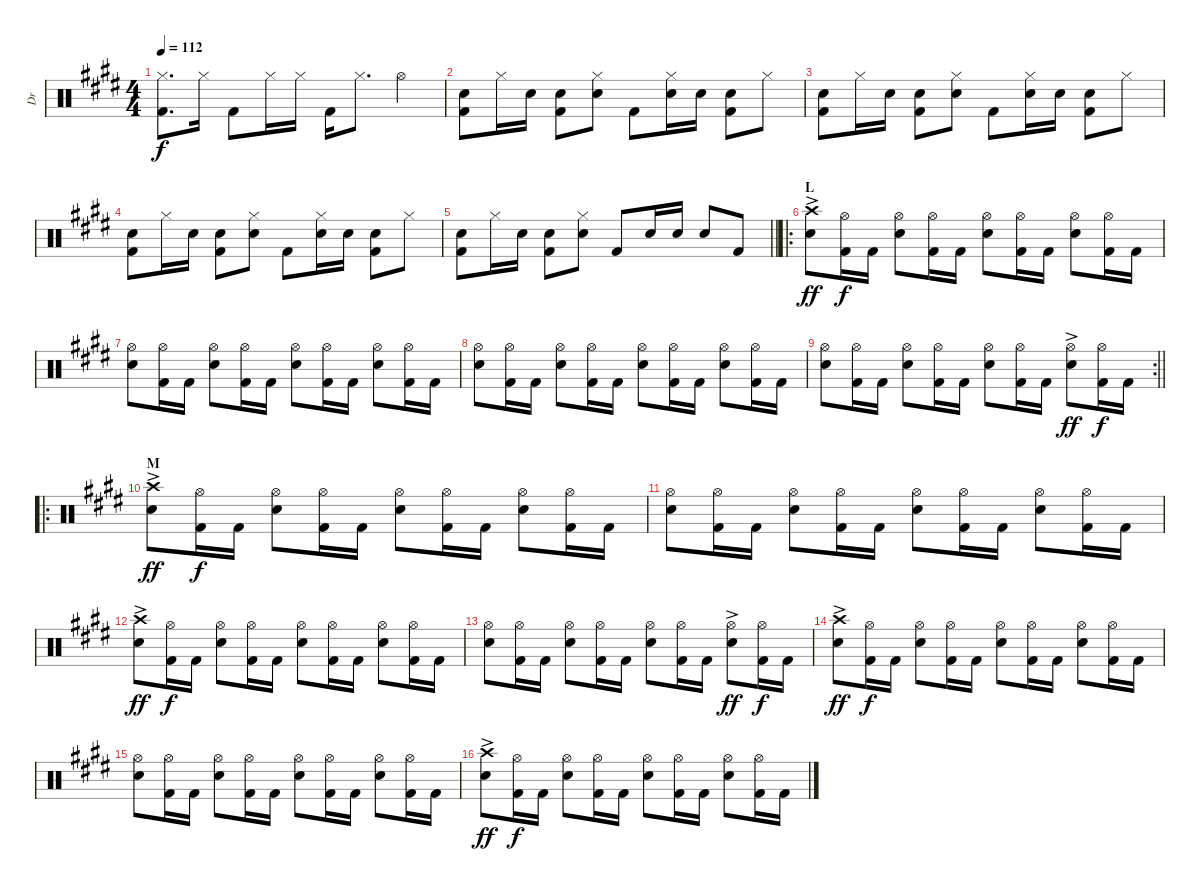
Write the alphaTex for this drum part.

\track ("Dr" "Dr") {instrument percussion}
\staff {score}
\articulation defaults
\ts (4 4)
\tempo 112
\clef neutral
\ks e
("Hi-Hat (closed)" "Kick (hit) 2").8{d dy f} "Hi-Hat (closed)".16 "Kick (hit) 2".8 "Hi-Hat (closed)".16 "Hi-Hat (closed)".16 "Kick (hit) 2".16 "Hi-Hat (closed)".8{d} "Hi-Hat (open)".4 |
("Electric Snare (hit)" "Kick (hit) 2").8 "Hi-Hat (closed)".16 "Electric Snare (hit)".16 ("Electric Snare (hit)" "Kick (hit) 2").8 ("Hi-Hat (closed)" "Electric Snare (hit)").8 "Kick (hit) 2".8 ("Hi-Hat (closed)" "Electric Snare (hit)").16 "Electric Snare (hit)".16 ("Electric Snare (hit)" "Kick (hit) 2").8 "Hi-Hat (closed)".8 |
("Electric Snare (hit)" "Kick (hit) 2").8 "Hi-Hat (closed)".16 "Electric Snare (hit)".16 ("Electric Snare (hit)" "Kick (hit) 2").8 ("Hi-Hat (closed)" "Electric Snare (hit)").8 "Kick (hit) 2".8 ("Hi-Hat (closed)" "Electric Snare (hit)").16 "Electric Snare (hit)".16 ("Electric Snare (hit)" "Kick (hit) 2").8 "Hi-Hat (closed)".8 |
("Electric Snare (hit)" "Kick (hit) 2").8 "Hi-Hat (closed)".16 "Electric Snare (hit)".16 ("Electric Snare (hit)" "Kick (hit) 2").8 ("Hi-Hat (closed)" "Electric Snare (hit)").8 "Kick (hit) 2".8 ("Hi-Hat (closed)" "Electric Snare (hit)").16 "Electric Snare (hit)".16 ("Electric Snare (hit)" "Kick (hit) 2").8 "Hi-Hat (closed)".8 |
\barLineRight lightlight
("Electric Snare (hit)" "Kick (hit) 2").8 "Hi-Hat (closed)".16 "Electric Snare (hit)".16 ("Electric Snare (hit)" "Kick (hit) 2").8 ("Hi-Hat (closed)" "Electric Snare (hit)").8 "Kick (hit) 2".8 "Electric Snare (hit)".16 "Electric Snare (hit)".16 "Electric Snare (hit)".8 "Kick (hit) 2".8 |
\ro
\section ("" "L")
("Crash high (hit)"{ac} "Electric Snare (hit)"{ac}).8{dy ff} ("Hi-Hat (open)" "Kick (hit) 2").16{dy f} "Kick (hit) 2".16 ("Hi-Hat (open)" "Electric Snare (hit)").8 ("Hi-Hat (open)" "Kick (hit) 2").16 "Kick (hit) 2".16 ("Hi-Hat (open)" "Electric Snare (hit)").8 ("Hi-Hat (open)" "Kick (hit) 2").16 "Kick (hit) 2".16 ("Hi-Hat (open)" "Electric Snare (hit)").8 ("Hi-Hat (open)" "Kick (hit) 2").16 "Kick (hit) 2".16 |
("Hi-Hat (open)" "Electric Snare (hit)").8 ("Hi-Hat (open)" "Kick (hit) 2").16 "Kick (hit) 2".16 ("Hi-Hat (open)" "Electric Snare (hit)").8 ("Hi-Hat (open)" "Kick (hit) 2").16 "Kick (hit) 2".16 ("Hi-Hat (open)" "Electric Snare (hit)").8 ("Hi-Hat (open)" "Kick (hit) 2").16 "Kick (hit) 2".16 ("Hi-Hat (open)" "Electric Snare (hit)").8 ("Hi-Hat (open)" "Kick (hit) 2").16 "Kick (hit) 2".16 |
("Hi-Hat (open)" "Electric Snare (hit)").8 ("Hi-Hat (open)" "Kick (hit) 2").16 "Kick (hit) 2".16 ("Hi-Hat (open)" "Electric Snare (hit)").8 ("Hi-Hat (open)" "Kick (hit) 2").16 "Kick (hit) 2".16 ("Hi-Hat (open)" "Electric Snare (hit)").8 ("Hi-Hat (open)" "Kick (hit) 2").16 "Kick (hit) 2".16 ("Hi-Hat (open)" "Electric Snare (hit)").8 ("Hi-Hat (open)" "Kick (hit) 2").16 "Kick (hit) 2".16 |
\rc 2
\barLineRight lightlight
("Hi-Hat (open)" "Electric Snare (hit)").8 ("Hi-Hat (open)" "Kick (hit) 2").16 "Kick (hit) 2".16 ("Hi-Hat (open)" "Electric Snare (hit)").8 ("Hi-Hat (open)" "Kick (hit) 2").16 "Kick (hit) 2".16 ("Hi-Hat (open)" "Electric Snare (hit)").8 ("Hi-Hat (open)" "Kick (hit) 2").16 "Kick (hit) 2".16 ("Hi-Hat (open)"{ac} "Electric Snare (hit)"{ac}).8{dy ff} ("Hi-Hat (open)" "Kick (hit) 2").16{dy f} "Kick (hit) 2".16 |
\ro
\section ("" "M")
("Crash high (hit)"{ac} "Electric Snare (hit)"{ac}).8{dy ff} ("Hi-Hat (open)" "Kick (hit) 2").16{dy f} "Kick (hit) 2".16 ("Hi-Hat (open)" "Electric Snare (hit)").8 ("Hi-Hat (open)" "Kick (hit) 2").16 "Kick (hit) 2".16 ("Hi-Hat (open)" "Electric Snare (hit)").8 ("Hi-Hat (open)" "Kick (hit) 2").16 "Kick (hit) 2".16 ("Hi-Hat (open)" "Electric Snare (hit)").8 ("Hi-Hat (open)" "Kick (hit) 2").16 "Kick (hit) 2".16 |
("Hi-Hat (open)" "Electric Snare (hit)").8 ("Hi-Hat (open)" "Kick (hit) 2").16 "Kick (hit) 2".16 ("Hi-Hat (open)" "Electric Snare (hit)").8 ("Hi-Hat (open)" "Kick (hit) 2").16 "Kick (hit) 2".16 ("Hi-Hat (open)" "Electric Snare (hit)").8 ("Hi-Hat (open)" "Kick (hit) 2").16 "Kick (hit) 2".16 ("Hi-Hat (open)" "Electric Snare (hit)").8 ("Hi-Hat (open)" "Kick (hit) 2").16 "Kick (hit) 2".16 |
("Crash high (hit)"{ac} "Electric Snare (hit)"{ac}).8{dy ff} ("Hi-Hat (open)" "Kick (hit) 2").16{dy f} "Kick (hit) 2".16 ("Hi-Hat (open)" "Electric Snare (hit)").8 ("Hi-Hat (open)" "Kick (hit) 2").16 "Kick (hit) 2".16 ("Hi-Hat (open)" "Electric Snare (hit)").8 ("Hi-Hat (open)" "Kick (hit) 2").16 "Kick (hit) 2".16 ("Hi-Hat (open)" "Electric Snare (hit)").8 ("Hi-Hat (open)" "Kick (hit) 2").16 "Kick (hit) 2".16 |
("Hi-Hat (open)" "Electric Snare (hit)").8 ("Hi-Hat (open)" "Kick (hit) 2").16 "Kick (hit) 2".16 ("Hi-Hat (open)" "Electric Snare (hit)").8 ("Hi-Hat (open)" "Kick (hit) 2").16 "Kick (hit) 2".16 ("Hi-Hat (open)" "Electric Snare (hit)").8 ("Hi-Hat (open)" "Kick (hit) 2").16 "Kick (hit) 2".16 ("Hi-Hat (open)"{ac} "Electric Snare (hit)"{ac}).8{dy ff} ("Hi-Hat (open)" "Kick (hit) 2").16{dy f} "Kick (hit) 2".16 |
("Crash high (hit)"{ac} "Electric Snare (hit)"{ac}).8{dy ff} ("Hi-Hat (open)" "Kick (hit) 2").16{dy f} "Kick (hit) 2".16 ("Hi-Hat (open)" "Electric Snare (hit)").8 ("Hi-Hat (open)" "Kick (hit) 2").16 "Kick (hit) 2".16 ("Hi-Hat (open)" "Electric Snare (hit)").8 ("Hi-Hat (open)" "Kick (hit) 2").16 "Kick (hit) 2".16 ("Hi-Hat (open)" "Electric Snare (hit)").8 ("Hi-Hat (open)" "Kick (hit) 2").16 "Kick (hit) 2".16 |
("Hi-Hat (open)" "Electric Snare (hit)").8 ("Hi-Hat (open)" "Kick (hit) 2").16 "Kick (hit) 2".16 ("Hi-Hat (open)" "Electric Snare (hit)").8 ("Hi-Hat (open)" "Kick (hit) 2").16 "Kick (hit) 2".16 ("Hi-Hat (open)" "Electric Snare (hit)").8 ("Hi-Hat (open)" "Kick (hit) 2").16 "Kick (hit) 2".16 ("Hi-Hat (open)" "Electric Snare (hit)").8 ("Hi-Hat (open)" "Kick (hit) 2").16 "Kick (hit) 2".16 |
("Crash high (hit)"{ac} "Electric Snare (hit)"{ac}).8{dy ff} ("Hi-Hat (open)" "Kick (hit) 2").16{dy f} "Kick (hit) 2".16 ("Hi-Hat (open)" "Electric Snare (hit)").8 ("Hi-Hat (open)" "Kick (hit) 2").16 "Kick (hit) 2".16 ("Hi-Hat (open)" "Electric Snare (hit)").8 ("Hi-Hat (open)" "Kick (hit) 2").16 "Kick (hit) 2".16 ("Hi-Hat (open)" "Electric Snare (hit)").8 ("Hi-Hat (open)" "Kick (hit) 2").16 "Kick (hit) 2".16
